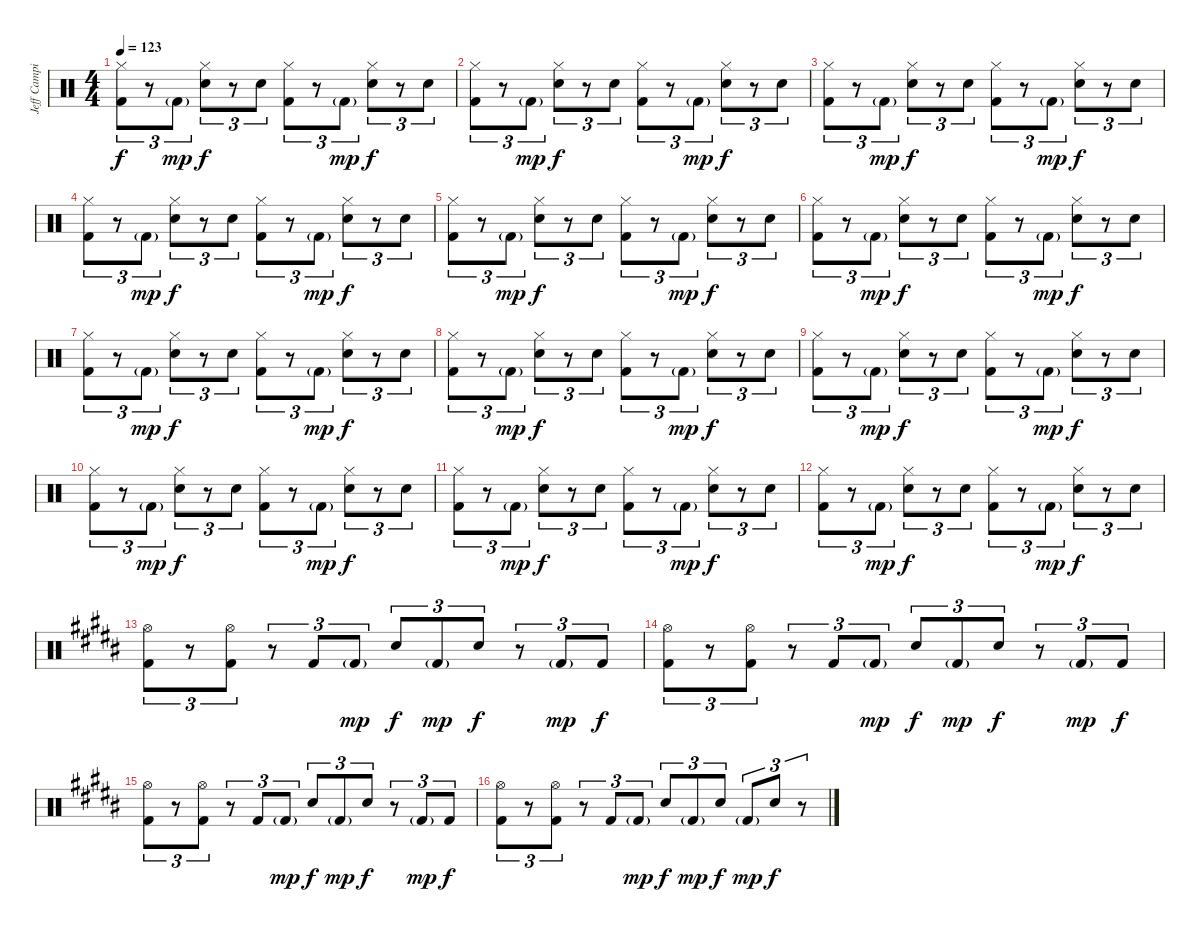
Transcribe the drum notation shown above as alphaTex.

\track ("Jeff Campitelli (Drums)" "Jeff Campi") {instrument percussion}
\staff {score}
\articulation defaults
\ts (4 4)
\tempo 123
\clef neutral
\ks c
("Hi-Hat (closed)" "Kick (hit) 2").8{tu (3 2) dy f} r.8{tu (3 2)} "Kick (hit) 2"{g}.8{tu (3 2) dy mp} ("Hi-Hat (closed)" "Electric Snare (hit)").8{tu (3 2) dy f} r.8{tu (3 2)} "Electric Snare (hit)".8{tu (3 2)} ("Hi-Hat (closed)" "Kick (hit) 2").8{tu (3 2)} r.8{tu (3 2)} "Kick (hit) 2"{g}.8{tu (3 2) dy mp} ("Hi-Hat (closed)" "Electric Snare (hit)").8{tu (3 2) dy f} r.8{tu (3 2)} "Electric Snare (hit)".8{tu (3 2)} |
("Hi-Hat (closed)" "Kick (hit) 2").8{tu (3 2)} r.8{tu (3 2)} "Kick (hit) 2"{g}.8{tu (3 2) dy mp} ("Hi-Hat (closed)" "Electric Snare (hit)").8{tu (3 2) dy f} r.8{tu (3 2)} "Electric Snare (hit)".8{tu (3 2)} ("Hi-Hat (closed)" "Kick (hit) 2").8{tu (3 2)} r.8{tu (3 2)} "Kick (hit) 2"{g}.8{tu (3 2) dy mp} ("Hi-Hat (closed)" "Electric Snare (hit)").8{tu (3 2) dy f} r.8{tu (3 2)} "Electric Snare (hit)".8{tu (3 2)} |
("Hi-Hat (closed)" "Kick (hit) 2").8{tu (3 2)} r.8{tu (3 2)} "Kick (hit) 2"{g}.8{tu (3 2) dy mp} ("Hi-Hat (closed)" "Electric Snare (hit)").8{tu (3 2) dy f} r.8{tu (3 2)} "Electric Snare (hit)".8{tu (3 2)} ("Hi-Hat (closed)" "Kick (hit) 2").8{tu (3 2)} r.8{tu (3 2)} "Kick (hit) 2"{g}.8{tu (3 2) dy mp} ("Hi-Hat (closed)" "Electric Snare (hit)").8{tu (3 2) dy f} r.8{tu (3 2)} "Electric Snare (hit)".8{tu (3 2)} |
("Hi-Hat (closed)" "Kick (hit) 2").8{tu (3 2)} r.8{tu (3 2)} "Kick (hit) 2"{g}.8{tu (3 2) dy mp} ("Hi-Hat (closed)" "Electric Snare (hit)").8{tu (3 2) dy f} r.8{tu (3 2)} "Electric Snare (hit)".8{tu (3 2)} ("Hi-Hat (closed)" "Kick (hit) 2").8{tu (3 2)} r.8{tu (3 2)} "Kick (hit) 2"{g}.8{tu (3 2) dy mp} ("Hi-Hat (closed)" "Electric Snare (hit)").8{tu (3 2) dy f} r.8{tu (3 2)} "Electric Snare (hit)".8{tu (3 2)} |
("Hi-Hat (closed)" "Kick (hit) 2").8{tu (3 2)} r.8{tu (3 2)} "Kick (hit) 2"{g}.8{tu (3 2) dy mp} ("Hi-Hat (closed)" "Electric Snare (hit)").8{tu (3 2) dy f} r.8{tu (3 2)} "Electric Snare (hit)".8{tu (3 2)} ("Hi-Hat (closed)" "Kick (hit) 2").8{tu (3 2)} r.8{tu (3 2)} "Kick (hit) 2"{g}.8{tu (3 2) dy mp} ("Hi-Hat (closed)" "Electric Snare (hit)").8{tu (3 2) dy f} r.8{tu (3 2)} "Electric Snare (hit)".8{tu (3 2)} |
("Hi-Hat (closed)" "Kick (hit) 2").8{tu (3 2)} r.8{tu (3 2)} "Kick (hit) 2"{g}.8{tu (3 2) dy mp} ("Hi-Hat (closed)" "Electric Snare (hit)").8{tu (3 2) dy f} r.8{tu (3 2)} "Electric Snare (hit)".8{tu (3 2)} ("Hi-Hat (closed)" "Kick (hit) 2").8{tu (3 2)} r.8{tu (3 2)} "Kick (hit) 2"{g}.8{tu (3 2) dy mp} ("Hi-Hat (closed)" "Electric Snare (hit)").8{tu (3 2) dy f} r.8{tu (3 2)} "Electric Snare (hit)".8{tu (3 2)} |
("Hi-Hat (closed)" "Kick (hit) 2").8{tu (3 2)} r.8{tu (3 2)} "Kick (hit) 2"{g}.8{tu (3 2) dy mp} ("Hi-Hat (closed)" "Electric Snare (hit)").8{tu (3 2) dy f} r.8{tu (3 2)} "Electric Snare (hit)".8{tu (3 2)} ("Hi-Hat (closed)" "Kick (hit) 2").8{tu (3 2)} r.8{tu (3 2)} "Kick (hit) 2"{g}.8{tu (3 2) dy mp} ("Hi-Hat (closed)" "Electric Snare (hit)").8{tu (3 2) dy f} r.8{tu (3 2)} "Electric Snare (hit)".8{tu (3 2)} |
("Hi-Hat (closed)" "Kick (hit) 2").8{tu (3 2)} r.8{tu (3 2)} "Kick (hit) 2"{g}.8{tu (3 2) dy mp} ("Hi-Hat (closed)" "Electric Snare (hit)").8{tu (3 2) dy f} r.8{tu (3 2)} "Electric Snare (hit)".8{tu (3 2)} ("Hi-Hat (closed)" "Kick (hit) 2").8{tu (3 2)} r.8{tu (3 2)} "Kick (hit) 2"{g}.8{tu (3 2) dy mp} ("Hi-Hat (closed)" "Electric Snare (hit)").8{tu (3 2) dy f} r.8{tu (3 2)} "Electric Snare (hit)".8{tu (3 2)} |
("Hi-Hat (closed)" "Kick (hit) 2").8{tu (3 2)} r.8{tu (3 2)} "Kick (hit) 2"{g}.8{tu (3 2) dy mp} ("Hi-Hat (closed)" "Electric Snare (hit)").8{tu (3 2) dy f} r.8{tu (3 2)} "Electric Snare (hit)".8{tu (3 2)} ("Hi-Hat (closed)" "Kick (hit) 2").8{tu (3 2)} r.8{tu (3 2)} "Kick (hit) 2"{g}.8{tu (3 2) dy mp} ("Hi-Hat (closed)" "Electric Snare (hit)").8{tu (3 2) dy f} r.8{tu (3 2)} "Electric Snare (hit)".8{tu (3 2)} |
("Hi-Hat (closed)" "Kick (hit) 2").8{tu (3 2)} r.8{tu (3 2)} "Kick (hit) 2"{g}.8{tu (3 2) dy mp} ("Hi-Hat (closed)" "Electric Snare (hit)").8{tu (3 2) dy f} r.8{tu (3 2)} "Electric Snare (hit)".8{tu (3 2)} ("Hi-Hat (closed)" "Kick (hit) 2").8{tu (3 2)} r.8{tu (3 2)} "Kick (hit) 2"{g}.8{tu (3 2) dy mp} ("Hi-Hat (closed)" "Electric Snare (hit)").8{tu (3 2) dy f} r.8{tu (3 2)} "Electric Snare (hit)".8{tu (3 2)} |
("Hi-Hat (closed)" "Kick (hit) 2").8{tu (3 2)} r.8{tu (3 2)} "Kick (hit) 2"{g}.8{tu (3 2) dy mp} ("Hi-Hat (closed)" "Electric Snare (hit)").8{tu (3 2) dy f} r.8{tu (3 2)} "Electric Snare (hit)".8{tu (3 2)} ("Hi-Hat (closed)" "Kick (hit) 2").8{tu (3 2)} r.8{tu (3 2)} "Kick (hit) 2"{g}.8{tu (3 2) dy mp} ("Hi-Hat (closed)" "Electric Snare (hit)").8{tu (3 2) dy f} r.8{tu (3 2)} "Electric Snare (hit)".8{tu (3 2)} |
("Hi-Hat (closed)" "Kick (hit) 2").8{tu (3 2)} r.8{tu (3 2)} "Kick (hit) 2"{g}.8{tu (3 2) dy mp} ("Hi-Hat (closed)" "Electric Snare (hit)").8{tu (3 2) dy f} r.8{tu (3 2)} "Electric Snare (hit)".8{tu (3 2)} ("Hi-Hat (closed)" "Kick (hit) 2").8{tu (3 2)} r.8{tu (3 2)} "Kick (hit) 2"{g}.8{tu (3 2) dy mp} ("Hi-Hat (closed)" "Electric Snare (hit)").8{tu (3 2) dy f} r.8{tu (3 2)} "Electric Snare (hit)".8{tu (3 2)} |
\ks b
("Hi-Hat (open)" "Kick (hit) 2").8{tu (3 2)} r.8{tu (3 2)} ("Hi-Hat (open)" "Kick (hit) 2").8{tu (3 2)} r.8{tu (3 2)} "Kick (hit) 2".8{tu (3 2)} "Kick (hit) 2"{g}.8{tu (3 2) dy mp} "Electric Snare (hit)".8{tu (3 2) dy f} "Kick (hit) 2"{g}.8{tu (3 2) dy mp} "Electric Snare (hit)".8{tu (3 2) dy f} r.8{tu (3 2)} "Kick (hit) 2"{g}.8{tu (3 2) dy mp} "Kick (hit) 2".8{tu (3 2) dy f} |
("Hi-Hat (open)" "Kick (hit) 2").8{tu (3 2)} r.8{tu (3 2)} ("Hi-Hat (open)" "Kick (hit) 2").8{tu (3 2)} r.8{tu (3 2)} "Kick (hit) 2".8{tu (3 2)} "Kick (hit) 2"{g}.8{tu (3 2) dy mp} "Electric Snare (hit)".8{tu (3 2) dy f} "Kick (hit) 2"{g}.8{tu (3 2) dy mp} "Electric Snare (hit)".8{tu (3 2) dy f} r.8{tu (3 2)} "Kick (hit) 2"{g}.8{tu (3 2) dy mp} "Kick (hit) 2".8{tu (3 2) dy f} |
("Hi-Hat (open)" "Kick (hit) 2").8{tu (3 2)} r.8{tu (3 2)} ("Hi-Hat (open)" "Kick (hit) 2").8{tu (3 2)} r.8{tu (3 2)} "Kick (hit) 2".8{tu (3 2)} "Kick (hit) 2"{g}.8{tu (3 2) dy mp} "Electric Snare (hit)".8{tu (3 2) dy f} "Kick (hit) 2"{g}.8{tu (3 2) dy mp} "Electric Snare (hit)".8{tu (3 2) dy f} r.8{tu (3 2)} "Kick (hit) 2"{g}.8{tu (3 2) dy mp} "Kick (hit) 2".8{tu (3 2) dy f} |
("Hi-Hat (open)" "Kick (hit) 2").8{tu (3 2)} r.8{tu (3 2)} ("Hi-Hat (open)" "Kick (hit) 2").8{tu (3 2)} r.8{tu (3 2)} "Kick (hit) 2".8{tu (3 2)} "Kick (hit) 2"{g}.8{tu (3 2) dy mp} "Electric Snare (hit)".8{tu (3 2) dy f} "Kick (hit) 2"{g}.8{tu (3 2) dy mp} "Electric Snare (hit)".8{tu (3 2) dy f} "Kick (hit) 2"{g}.8{tu (3 2) dy mp} "Electric Snare (hit)".8{tu (3 2) dy f} r.8{tu (3 2)}
